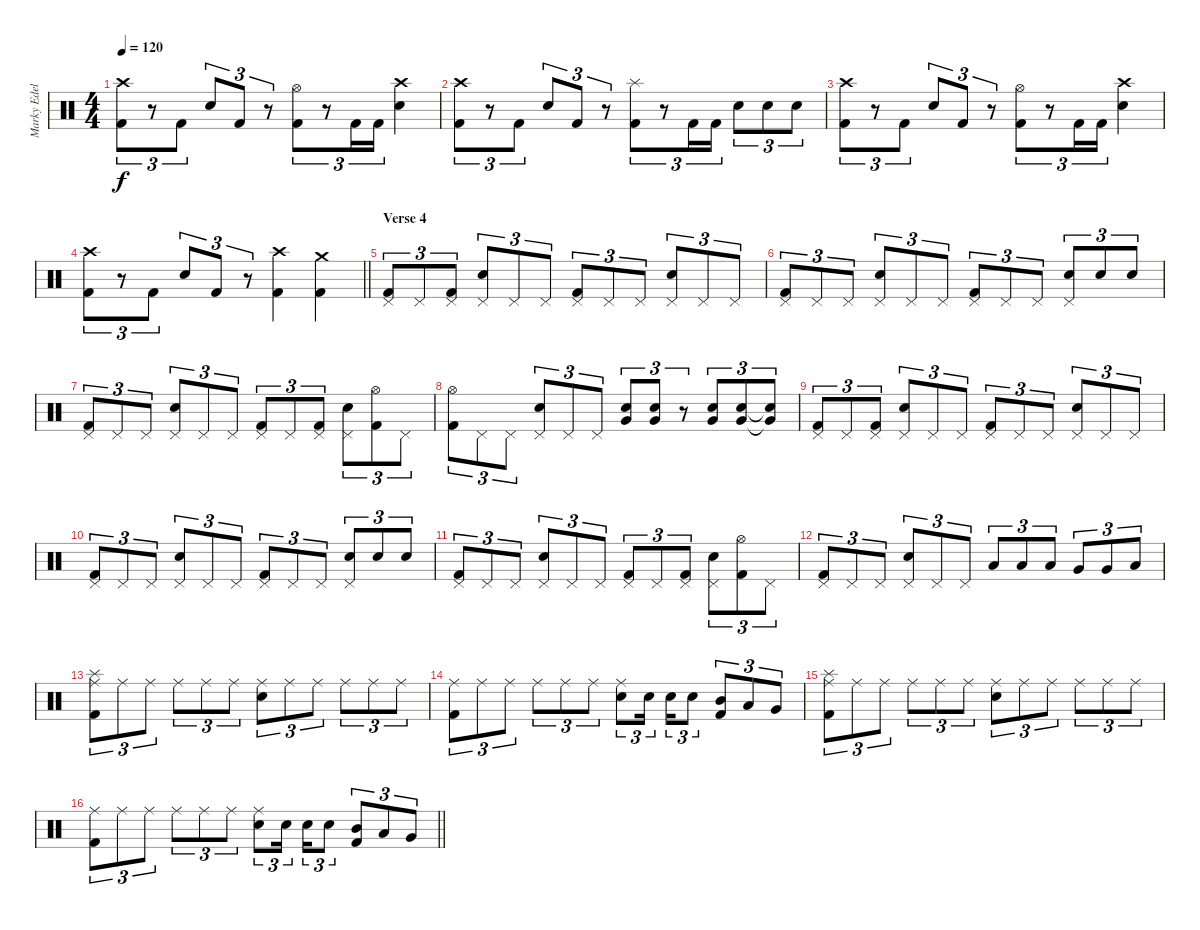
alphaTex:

\track ("Marky Edelmann" "Marky Edel") {instrument percussion}
\staff {score}
\articulation defaults
\ts (4 4)
\tempo 120
\clef neutral
\ks c
("Crash high (hit)" "Kick (hit) 2").8{tu (3 2) dy f} r.8{tu (3 2)} "Kick (hit) 2".8{tu (3 2)} "Snare (hit) 2".8{tu (3 2)} "Kick (hit) 2".8{tu (3 2)} r.8{tu (3 2)} ("Hi-Hat (open)" "Kick (hit) 2").8{tu (3 2)} r.8{tu (3 2)} "Kick (hit) 2".16{tu (3 2)} "Kick (hit) 2".16{tu (3 2)} ("Crash high (hit)" "Snare (hit) 2").4 |
("Crash high (hit)" "Kick (hit) 2").8{tu (3 2)} r.8{tu (3 2)} "Kick (hit) 2".8{tu (3 2)} "Snare (hit) 2".8{tu (3 2)} "Kick (hit) 2".8{tu (3 2)} r.8{tu (3 2)} ("Splash (hit)" "Kick (hit) 2").8{tu (3 2)} r.8{tu (3 2)} "Kick (hit) 2".16{tu (3 2)} "Kick (hit) 2".16{tu (3 2)} "Snare (hit) 2".8{tu (3 2)} "Snare (hit) 2".8{tu (3 2)} "Snare (hit) 2".8{tu (3 2)} |
("Crash high (hit)" "Kick (hit) 2").8{tu (3 2)} r.8{tu (3 2)} "Kick (hit) 2".8{tu (3 2)} "Snare (hit) 2".8{tu (3 2)} "Kick (hit) 2".8{tu (3 2)} r.8{tu (3 2)} ("Hi-Hat (open)" "Kick (hit) 2").8{tu (3 2)} r.8{tu (3 2)} "Kick (hit) 2".16{tu (3 2)} "Kick (hit) 2".16{tu (3 2)} ("Crash high (hit)" "Snare (hit) 2").4 |
\barLineRight lightlight
("Crash high (hit)" "Kick (hit) 2").8{tu (3 2)} r.8{tu (3 2)} "Kick (hit) 2".8{tu (3 2)} "Snare (hit) 2".8{tu (3 2)} "Kick (hit) 2".8{tu (3 2)} r.8{tu (3 2)} ("Crash high (hit)" "Kick (hit) 2").4 ("Crash medium (hit)" "Kick (hit) 2").4 |
\section ("" "Verse 4")
("Pedal Hi-Hat (hit)" "Kick (hit) 2").8{tu (3 2)} "Pedal Hi-Hat (hit)".8{tu (3 2)} ("Pedal Hi-Hat (hit)" "Kick (hit) 2").8{tu (3 2)} ("Pedal Hi-Hat (hit)" "Snare (hit) 2").8{tu (3 2)} "Pedal Hi-Hat (hit)".8{tu (3 2)} "Pedal Hi-Hat (hit)".8{tu (3 2)} ("Pedal Hi-Hat (hit)" "Kick (hit) 2").8{tu (3 2)} "Pedal Hi-Hat (hit)".8{tu (3 2)} "Pedal Hi-Hat (hit)".8{tu (3 2)} ("Pedal Hi-Hat (hit)" "Snare (hit) 2").8{tu (3 2)} "Pedal Hi-Hat (hit)".8{tu (3 2)} "Pedal Hi-Hat (hit)".8{tu (3 2)} |
("Pedal Hi-Hat (hit)" "Kick (hit) 2").8{tu (3 2)} "Pedal Hi-Hat (hit)".8{tu (3 2)} "Pedal Hi-Hat (hit)".8{tu (3 2)} ("Pedal Hi-Hat (hit)" "Snare (hit) 2").8{tu (3 2)} "Pedal Hi-Hat (hit)".8{tu (3 2)} "Pedal Hi-Hat (hit)".8{tu (3 2)} ("Pedal Hi-Hat (hit)" "Kick (hit) 2").8{tu (3 2)} "Pedal Hi-Hat (hit)".8{tu (3 2)} "Pedal Hi-Hat (hit)".8{tu (3 2)} ("Pedal Hi-Hat (hit)" "Snare (hit) 2").8{tu (3 2)} "Snare (hit) 2".8{tu (3 2)} "Snare (hit) 2".8{tu (3 2)} |
("Pedal Hi-Hat (hit)" "Kick (hit) 2").8{tu (3 2)} "Pedal Hi-Hat (hit)".8{tu (3 2)} "Pedal Hi-Hat (hit)".8{tu (3 2)} ("Pedal Hi-Hat (hit)" "Snare (hit) 2").8{tu (3 2)} "Pedal Hi-Hat (hit)".8{tu (3 2)} "Pedal Hi-Hat (hit)".8{tu (3 2)} ("Pedal Hi-Hat (hit)" "Kick (hit) 2").8{tu (3 2)} "Pedal Hi-Hat (hit)".8{tu (3 2)} ("Pedal Hi-Hat (hit)" "Kick (hit) 2").8{tu (3 2)} ("Pedal Hi-Hat (hit)" "Snare (hit) 2").8{tu (3 2)} ("Hi-Hat (open)" "Kick (hit) 2").8{tu (3 2)} "Pedal Hi-Hat (hit)".8{tu (3 2)} |
("Hi-Hat (open)" "Kick (hit) 2").8{tu (3 2)} "Pedal Hi-Hat (hit)".8{tu (3 2)} "Pedal Hi-Hat (hit)".8{tu (3 2)} ("Pedal Hi-Hat (hit)" "Snare (hit) 2").8{tu (3 2)} "Pedal Hi-Hat (hit)".8{tu (3 2)} "Pedal Hi-Hat (hit)".8{tu (3 2)} ("Very Low Tom (hit)" "Snare (hit) 2").8{tu (3 2)} ("Very Low Tom (hit)" "Snare (hit) 2").8{tu (3 2)} r.8{tu (3 2)} ("Very Low Tom (hit)" "Snare (hit) 2").8{tu (3 2)} ("Very Low Tom (hit)" "Snare (hit) 2").8{tu (3 2)} ("Very Low Tom (hit)"{t} "Snare (hit) 2"{t}).8{tu (3 2)} |
("Pedal Hi-Hat (hit)" "Kick (hit) 2").8{tu (3 2)} "Pedal Hi-Hat (hit)".8{tu (3 2)} ("Pedal Hi-Hat (hit)" "Kick (hit) 2").8{tu (3 2)} ("Pedal Hi-Hat (hit)" "Snare (hit) 2").8{tu (3 2)} "Pedal Hi-Hat (hit)".8{tu (3 2)} "Pedal Hi-Hat (hit)".8{tu (3 2)} ("Pedal Hi-Hat (hit)" "Kick (hit) 2").8{tu (3 2)} "Pedal Hi-Hat (hit)".8{tu (3 2)} "Pedal Hi-Hat (hit)".8{tu (3 2)} ("Pedal Hi-Hat (hit)" "Snare (hit) 2").8{tu (3 2)} "Pedal Hi-Hat (hit)".8{tu (3 2)} "Pedal Hi-Hat (hit)".8{tu (3 2)} |
("Pedal Hi-Hat (hit)" "Kick (hit) 2").8{tu (3 2)} "Pedal Hi-Hat (hit)".8{tu (3 2)} "Pedal Hi-Hat (hit)".8{tu (3 2)} ("Pedal Hi-Hat (hit)" "Snare (hit) 2").8{tu (3 2)} "Pedal Hi-Hat (hit)".8{tu (3 2)} "Pedal Hi-Hat (hit)".8{tu (3 2)} ("Pedal Hi-Hat (hit)" "Kick (hit) 2").8{tu (3 2)} "Pedal Hi-Hat (hit)".8{tu (3 2)} "Pedal Hi-Hat (hit)".8{tu (3 2)} ("Pedal Hi-Hat (hit)" "Snare (hit) 2").8{tu (3 2)} "Snare (hit) 2".8{tu (3 2)} "Snare (hit) 2".8{tu (3 2)} |
("Pedal Hi-Hat (hit)" "Kick (hit) 2").8{tu (3 2)} "Pedal Hi-Hat (hit)".8{tu (3 2)} "Pedal Hi-Hat (hit)".8{tu (3 2)} ("Pedal Hi-Hat (hit)" "Snare (hit) 2").8{tu (3 2)} "Pedal Hi-Hat (hit)".8{tu (3 2)} "Pedal Hi-Hat (hit)".8{tu (3 2)} ("Pedal Hi-Hat (hit)" "Kick (hit) 2").8{tu (3 2)} "Pedal Hi-Hat (hit)".8{tu (3 2)} ("Pedal Hi-Hat (hit)" "Kick (hit) 2").8{tu (3 2)} ("Pedal Hi-Hat (hit)" "Snare (hit) 2").8{tu (3 2)} ("Hi-Hat (open)" "Kick (hit) 2").8{tu (3 2)} "Pedal Hi-Hat (hit)".8{tu (3 2)} |
("Pedal Hi-Hat (hit)" "Kick (hit) 2").8{tu (3 2)} "Pedal Hi-Hat (hit)".8{tu (3 2)} "Pedal Hi-Hat (hit)".8{tu (3 2)} ("Pedal Hi-Hat (hit)" "Snare (hit) 2").8{tu (3 2)} "Pedal Hi-Hat (hit)".8{tu (3 2)} "Pedal Hi-Hat (hit)".8{tu (3 2)} "Low Tom (hit)".8{tu (3 2)} "Low Tom (hit)".8{tu (3 2)} "Low Tom (hit)".8{tu (3 2)} "Very Low Tom (hit)".8{tu (3 2)} "Very Low Tom (hit)".8{tu (3 2)} "Low Floor Tom (hit)".8{tu (3 2)} |
("Ride (middle)" "Splash (hit)" "Kick (hit) 2").8{tu (3 2)} "Ride (middle)".8{tu (3 2)} "Ride (middle)".8{tu (3 2)} "Ride (middle)".8{tu (3 2)} "Ride (middle)".8{tu (3 2)} "Ride (middle)".8{tu (3 2)} ("Ride (middle)" "Snare (hit) 2").8{tu (3 2)} "Ride (middle)".8{tu (3 2)} "Ride (middle)".8{tu (3 2)} "Ride (middle)".8{tu (3 2)} "Ride (middle)".8{tu (3 2)} "Ride (middle)".8{tu (3 2)} |
("Ride (middle)" "Kick (hit) 2").8{tu (3 2)} "Ride (middle)".8{tu (3 2)} "Ride (middle)".8{tu (3 2)} "Ride (middle)".8{tu (3 2)} "Ride (middle)".8{tu (3 2)} "Ride (middle)".8{tu (3 2)} ("Ride (middle)" "Snare (hit) 2").8{tu (3 2)} "Snare (hit) 2".16{tu (3 2) beam splitsecondary} "Snare (hit) 2".16{tu (3 2)} "Snare (hit) 2".8{tu (3 2)} ("Mid Tom (hit)" "Kick (hit) 2").8{tu (3 2)} "Low Tom (hit)".8{tu (3 2)} "Very Low Tom (hit)".8{tu (3 2)} |
("Ride (middle)" "Splash (hit)" "Kick (hit) 2").8{tu (3 2)} "Ride (middle)".8{tu (3 2)} "Ride (middle)".8{tu (3 2)} "Ride (middle)".8{tu (3 2)} "Ride (middle)".8{tu (3 2)} "Ride (middle)".8{tu (3 2)} ("Ride (middle)" "Snare (hit) 2").8{tu (3 2)} "Ride (middle)".8{tu (3 2)} "Ride (middle)".8{tu (3 2)} "Ride (middle)".8{tu (3 2)} "Ride (middle)".8{tu (3 2)} "Ride (middle)".8{tu (3 2)} |
\barLineRight lightlight
("Ride (middle)" "Kick (hit) 2").8{tu (3 2)} "Ride (middle)".8{tu (3 2)} "Ride (middle)".8{tu (3 2)} "Ride (middle)".8{tu (3 2)} "Ride (middle)".8{tu (3 2)} "Ride (middle)".8{tu (3 2)} ("Ride (middle)" "Snare (hit) 2").8{tu (3 2)} "Snare (hit) 2".16{tu (3 2) beam splitsecondary} "Snare (hit) 2".16{tu (3 2)} "Snare (hit) 2".8{tu (3 2)} ("Mid Tom (hit)" "Kick (hit) 2").8{tu (3 2)} "Low Tom (hit)".8{tu (3 2)} "Very Low Tom (hit)".8{tu (3 2)}
